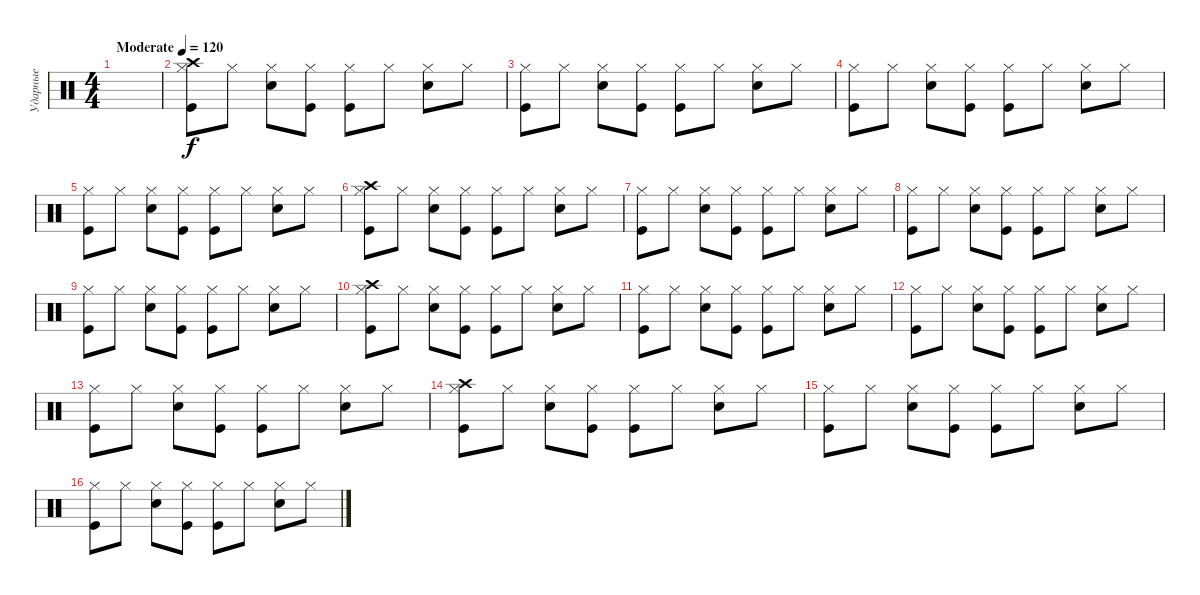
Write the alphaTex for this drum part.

\track ("Ударные" "Ударные") {instrument percussion}
\staff {score}
\articulation defaults
\ts (4 4)
\tempo (120 "Moderate")
\clef neutral
\ks c
|
("Kick (hit)" "Hi-Hat (closed)" "Crash high (hit)").8 "Hi-Hat (closed)".8 ("Snare (hit) 2" "Hi-Hat (closed)").8 ("Kick (hit)" "Hi-Hat (closed)").8 ("Kick (hit)" "Hi-Hat (closed)").8 "Hi-Hat (closed)".8 ("Snare (hit) 2" "Hi-Hat (closed)").8 "Hi-Hat (closed)".8 |
("Kick (hit)" "Hi-Hat (closed)").8 "Hi-Hat (closed)".8 ("Snare (hit) 2" "Hi-Hat (closed)").8 ("Kick (hit)" "Hi-Hat (closed)").8 ("Kick (hit)" "Hi-Hat (closed)").8 "Hi-Hat (closed)".8 ("Snare (hit) 2" "Hi-Hat (closed)").8 "Hi-Hat (closed)".8 |
("Kick (hit)" "Hi-Hat (closed)").8 "Hi-Hat (closed)".8 ("Snare (hit) 2" "Hi-Hat (closed)").8 ("Kick (hit)" "Hi-Hat (closed)").8 ("Kick (hit)" "Hi-Hat (closed)").8 "Hi-Hat (closed)".8 ("Snare (hit) 2" "Hi-Hat (closed)").8 "Hi-Hat (closed)".8 |
("Kick (hit)" "Hi-Hat (closed)").8 "Hi-Hat (closed)".8 ("Snare (hit) 2" "Hi-Hat (closed)").8 ("Kick (hit)" "Hi-Hat (closed)").8 ("Kick (hit)" "Hi-Hat (closed)").8 "Hi-Hat (closed)".8 ("Snare (hit) 2" "Hi-Hat (closed)").8 "Hi-Hat (closed)".8 |
("Kick (hit)" "Hi-Hat (closed)" "Crash high (hit)").8 "Hi-Hat (closed)".8 ("Snare (hit) 2" "Hi-Hat (closed)").8 ("Kick (hit)" "Hi-Hat (closed)").8 ("Kick (hit)" "Hi-Hat (closed)").8 "Hi-Hat (closed)".8 ("Snare (hit) 2" "Hi-Hat (closed)").8 "Hi-Hat (closed)".8 |
("Kick (hit)" "Hi-Hat (closed)").8 "Hi-Hat (closed)".8 ("Snare (hit) 2" "Hi-Hat (closed)").8 ("Kick (hit)" "Hi-Hat (closed)").8 ("Kick (hit)" "Hi-Hat (closed)").8 "Hi-Hat (closed)".8 ("Snare (hit) 2" "Hi-Hat (closed)").8 "Hi-Hat (closed)".8 |
("Kick (hit)" "Hi-Hat (closed)").8 "Hi-Hat (closed)".8 ("Snare (hit) 2" "Hi-Hat (closed)").8 ("Kick (hit)" "Hi-Hat (closed)").8 ("Kick (hit)" "Hi-Hat (closed)").8 "Hi-Hat (closed)".8 ("Snare (hit) 2" "Hi-Hat (closed)").8 "Hi-Hat (closed)".8 |
("Kick (hit)" "Hi-Hat (closed)").8 "Hi-Hat (closed)".8 ("Snare (hit) 2" "Hi-Hat (closed)").8 ("Kick (hit)" "Hi-Hat (closed)").8 ("Kick (hit)" "Hi-Hat (closed)").8 "Hi-Hat (closed)".8 ("Snare (hit) 2" "Hi-Hat (closed)").8 "Hi-Hat (closed)".8 |
("Kick (hit)" "Hi-Hat (closed)" "Crash high (hit)").8 "Hi-Hat (closed)".8 ("Snare (hit) 2" "Hi-Hat (closed)").8 ("Kick (hit)" "Hi-Hat (closed)").8 ("Kick (hit)" "Hi-Hat (closed)").8 "Hi-Hat (closed)".8 ("Snare (hit) 2" "Hi-Hat (closed)").8 "Hi-Hat (closed)".8 |
("Kick (hit)" "Hi-Hat (closed)").8 "Hi-Hat (closed)".8 ("Snare (hit) 2" "Hi-Hat (closed)").8 ("Kick (hit)" "Hi-Hat (closed)").8 ("Kick (hit)" "Hi-Hat (closed)").8 "Hi-Hat (closed)".8 ("Snare (hit) 2" "Hi-Hat (closed)").8 "Hi-Hat (closed)".8 |
("Kick (hit)" "Hi-Hat (closed)").8 "Hi-Hat (closed)".8 ("Snare (hit) 2" "Hi-Hat (closed)").8 ("Kick (hit)" "Hi-Hat (closed)").8 ("Kick (hit)" "Hi-Hat (closed)").8 "Hi-Hat (closed)".8 ("Snare (hit) 2" "Hi-Hat (closed)").8 "Hi-Hat (closed)".8 |
("Kick (hit)" "Hi-Hat (closed)").8 "Hi-Hat (closed)".8 ("Snare (hit) 2" "Hi-Hat (closed)").8 ("Kick (hit)" "Hi-Hat (closed)").8 ("Kick (hit)" "Hi-Hat (closed)").8 "Hi-Hat (closed)".8 ("Snare (hit) 2" "Hi-Hat (closed)").8 "Hi-Hat (closed)".8 |
("Kick (hit)" "Hi-Hat (closed)" "Crash high (hit)").8 "Hi-Hat (closed)".8 ("Snare (hit) 2" "Hi-Hat (closed)").8 ("Kick (hit)" "Hi-Hat (closed)").8 ("Kick (hit)" "Hi-Hat (closed)").8 "Hi-Hat (closed)".8 ("Snare (hit) 2" "Hi-Hat (closed)").8 "Hi-Hat (closed)".8 |
("Kick (hit)" "Hi-Hat (closed)").8 "Hi-Hat (closed)".8 ("Snare (hit) 2" "Hi-Hat (closed)").8 ("Kick (hit)" "Hi-Hat (closed)").8 ("Kick (hit)" "Hi-Hat (closed)").8 "Hi-Hat (closed)".8 ("Snare (hit) 2" "Hi-Hat (closed)").8 "Hi-Hat (closed)".8 |
("Kick (hit)" "Hi-Hat (closed)").8 "Hi-Hat (closed)".8 ("Snare (hit) 2" "Hi-Hat (closed)").8 ("Kick (hit)" "Hi-Hat (closed)").8 ("Kick (hit)" "Hi-Hat (closed)").8 "Hi-Hat (closed)".8 ("Snare (hit) 2" "Hi-Hat (closed)").8 "Hi-Hat (closed)".8
